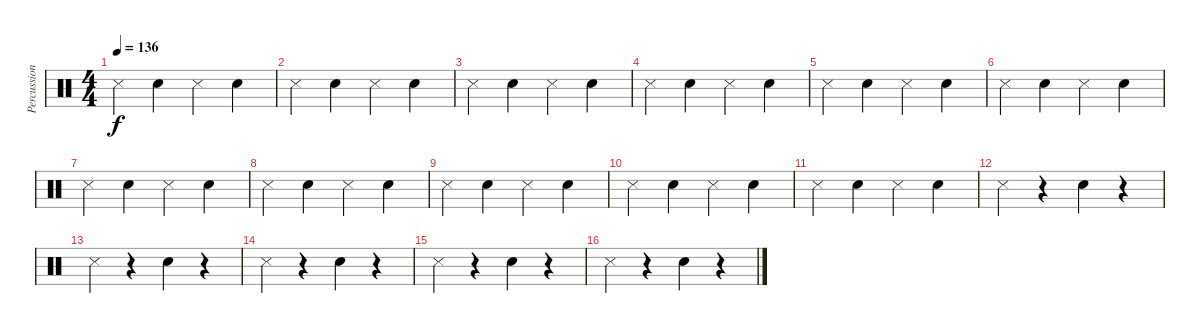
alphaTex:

\track ("Percussions" "Percussion") {instrument percussion}
\staff {score}
\articulation defaults
\ts (4 4)
\tempo 136
\clef neutral
\ks c "Snare (side stick) 3".4{dy f} "Electric Snare (hit)".4 "Snare (side stick) 3".4 "Electric Snare (hit)".4
|
"Snare (side stick) 3".4 "Electric Snare (hit)".4 "Snare (side stick) 3".4 "Electric Snare (hit)".4 |
"Snare (side stick) 3".4 "Electric Snare (hit)".4 "Snare (side stick) 3".4 "Electric Snare (hit)".4 |
"Snare (side stick) 3".4 "Electric Snare (hit)".4 "Snare (side stick) 3".4 "Electric Snare (hit)".4 |
"Snare (side stick) 3".4 "Electric Snare (hit)".4 "Snare (side stick) 3".4 "Electric Snare (hit)".4 |
"Snare (side stick) 3".4 "Electric Snare (hit)".4 "Snare (side stick) 3".4 "Electric Snare (hit)".4 |
"Snare (side stick) 3".4 "Electric Snare (hit)".4 "Snare (side stick) 3".4 "Electric Snare (hit)".4 |
"Snare (side stick) 3".4 "Electric Snare (hit)".4 "Snare (side stick) 3".4 "Electric Snare (hit)".4 |
"Snare (side stick) 3".4 "Electric Snare (hit)".4 "Snare (side stick) 3".4 "Electric Snare (hit)".4 |
"Snare (side stick) 3".4 "Electric Snare (hit)".4 "Snare (side stick) 3".4 "Electric Snare (hit)".4 |
"Snare (side stick) 3".4 "Electric Snare (hit)".4 "Snare (side stick) 3".4 "Electric Snare (hit)".4 |
"Snare (side stick) 3".4 r.4 "Electric Snare (hit)".4 r.4 |
"Snare (side stick) 3".4 r.4 "Electric Snare (hit)".4 r.4 |
"Snare (side stick) 3".4 r.4 "Electric Snare (hit)".4 r.4 |
"Snare (side stick) 3".4 r.4 "Electric Snare (hit)".4 r.4 |
"Snare (side stick) 3".4 r.4 "Electric Snare (hit)".4 r.4
